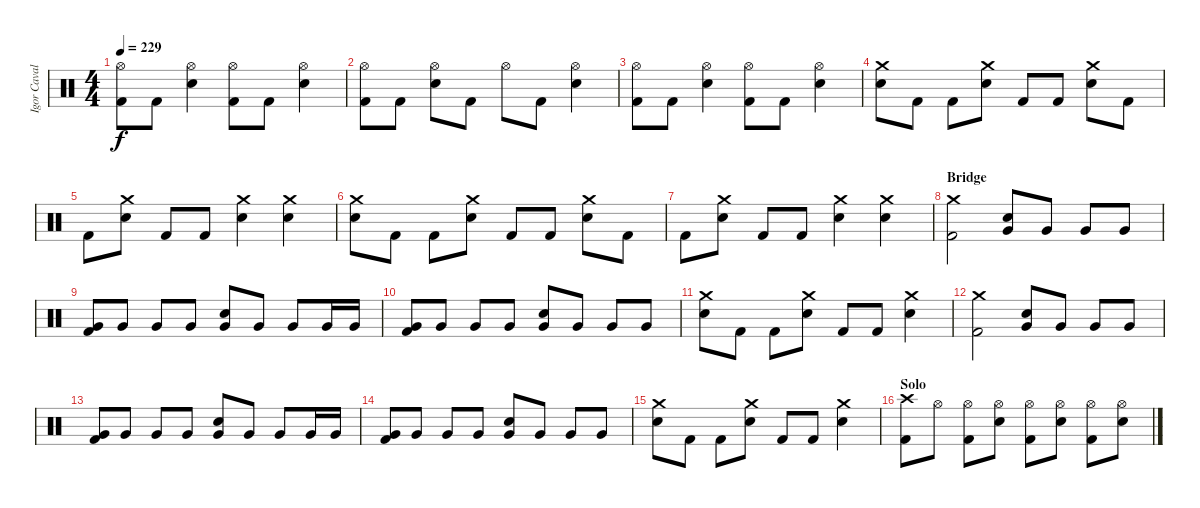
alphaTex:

\track ("Igor Cavalera" "Igor Caval") {instrument percussion}
\staff {score}
\articulation defaults
\ts (4 4)
\tempo 229
\clef neutral
\ks c
("Kick (hit) 2" "Hi-Hat (open)").8{dy f} "Kick (hit) 2".8 ("Snare (hit) 2" "Hi-Hat (open)").4 ("Kick (hit) 2" "Hi-Hat (open)").8 "Kick (hit) 2".8 ("Snare (hit) 2" "Hi-Hat (open)").4 |
("Kick (hit) 2" "Hi-Hat (open)").8 "Kick (hit) 2".8 ("Snare (hit) 2" "Hi-Hat (open)").8 "Kick (hit) 2".8 "Hi-Hat (open)".8 "Kick (hit) 2".8 ("Snare (hit) 2" "Hi-Hat (open)").4 |
("Kick (hit) 2" "Hi-Hat (open)").8 "Kick (hit) 2".8 ("Snare (hit) 2" "Hi-Hat (open)").4 ("Kick (hit) 2" "Hi-Hat (open)").8 "Kick (hit) 2".8 ("Snare (hit) 2" "Hi-Hat (open)").4 |
("Snare (hit) 2" "Crash medium (hit)").8 "Kick (hit) 2".8 "Kick (hit) 2".8 ("Snare (hit) 2" "Crash medium (hit)").8 "Kick (hit) 2".8 "Kick (hit) 2".8 ("Snare (hit) 2" "Crash medium (hit)").8 "Kick (hit) 2".8 |
"Kick (hit) 2".8 ("Snare (hit) 2" "Crash medium (hit)").8 "Kick (hit) 2".8 "Kick (hit) 2".8 ("Snare (hit) 2" "Crash medium (hit)").4 ("Snare (hit) 2" "Crash medium (hit)").4 |
("Snare (hit) 2" "Crash medium (hit)").8 "Kick (hit) 2".8 "Kick (hit) 2".8 ("Snare (hit) 2" "Crash medium (hit)").8 "Kick (hit) 2".8 "Kick (hit) 2".8 ("Snare (hit) 2" "Crash medium (hit)").8 "Kick (hit) 2".8 |
"Kick (hit) 2".8 ("Snare (hit) 2" "Crash medium (hit)").8 "Kick (hit) 2".8 "Kick (hit) 2".8 ("Snare (hit) 2" "Crash medium (hit)").4 ("Snare (hit) 2" "Crash medium (hit)").4 |
\section ("" "Bridge")
("Kick (hit) 2" "Crash medium (hit)").2 ("Snare (hit) 2" "Very Low Tom (hit)").8 "Very Low Tom (hit)".8 "Very Low Tom (hit)".8 "Very Low Tom (hit)".8 |
("Kick (hit) 2" "Very Low Tom (hit)").8 "Very Low Tom (hit)".8 "Very Low Tom (hit)".8 "Very Low Tom (hit)".8 ("Snare (hit) 2" "Very Low Tom (hit)").8 "Very Low Tom (hit)".8 "Very Low Tom (hit)".8 "Very Low Tom (hit)".16 "Very Low Tom (hit)".16 |
("Kick (hit) 2" "Very Low Tom (hit)").8 "Very Low Tom (hit)".8 "Very Low Tom (hit)".8 "Very Low Tom (hit)".8 ("Snare (hit) 2" "Very Low Tom (hit)").8 "Very Low Tom (hit)".8 "Very Low Tom (hit)".8 "Very Low Tom (hit)".8 |
("Snare (hit) 2" "Crash medium (hit)").8 "Kick (hit) 2".8 "Kick (hit) 2".8 ("Snare (hit) 2" "Crash medium (hit)").8 "Kick (hit) 2".8 "Kick (hit) 2".8 ("Snare (hit) 2" "Crash medium (hit)").4 |
("Kick (hit) 2" "Crash medium (hit)").2 ("Snare (hit) 2" "Very Low Tom (hit)").8 "Very Low Tom (hit)".8 "Very Low Tom (hit)".8 "Very Low Tom (hit)".8 |
("Kick (hit) 2" "Very Low Tom (hit)").8 "Very Low Tom (hit)".8 "Very Low Tom (hit)".8 "Very Low Tom (hit)".8 ("Snare (hit) 2" "Very Low Tom (hit)").8 "Very Low Tom (hit)".8 "Very Low Tom (hit)".8 "Very Low Tom (hit)".16 "Very Low Tom (hit)".16 |
("Kick (hit) 2" "Very Low Tom (hit)").8 "Very Low Tom (hit)".8 "Very Low Tom (hit)".8 "Very Low Tom (hit)".8 ("Snare (hit) 2" "Very Low Tom (hit)").8 "Very Low Tom (hit)".8 "Very Low Tom (hit)".8 "Very Low Tom (hit)".8 |
("Snare (hit) 2" "Crash medium (hit)").8 "Kick (hit) 2".8 "Kick (hit) 2".8 ("Snare (hit) 2" "Crash medium (hit)").8 "Kick (hit) 2".8 "Kick (hit) 2".8 ("Snare (hit) 2" "Crash medium (hit)").4 |
\section ("" "Solo")
("Kick (hit) 2" "Crash high (hit)").8 "Hi-Hat (open)".8 ("Kick (hit) 2" "Hi-Hat (open)").8 ("Snare (hit) 2" "Hi-Hat (open)").8 ("Kick (hit) 2" "Hi-Hat (open)").8 ("Snare (hit) 2" "Hi-Hat (open)").8 ("Kick (hit) 2" "Hi-Hat (open)").8 ("Snare (hit) 2" "Hi-Hat (open)").8
